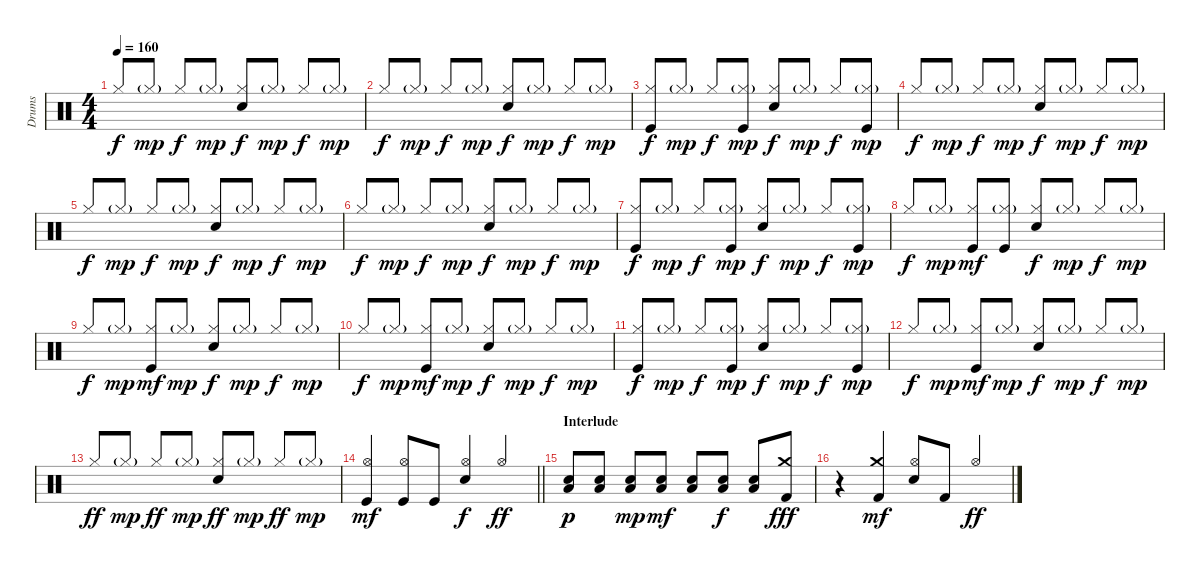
\track ("Drums" "Drums") {solo instrument percussion}
\staff {score}
\articulation defaults
\ts (4 4)
\tempo 160
\clef neutral
\ks c "Hi-Hat (closed)".8{dy f beam Up} "Hi-Hat (closed)"{g}.8{dy mp beam Up} "Hi-Hat (closed)".8{dy f beam Up} "Hi-Hat (closed)"{g}.8{dy mp beam Up}
("Hi-Hat (closed)" "Electric Snare (hit)").8{dy f beam Up} "Hi-Hat (closed)"{g}.8{dy mp beam Up} "Hi-Hat (closed)".8{dy f beam Up} "Hi-Hat (closed)"{g}.8{dy mp beam Up} |
"Hi-Hat (closed)".8{dy f beam Up} "Hi-Hat (closed)"{g}.8{dy mp beam Up} "Hi-Hat (closed)".8{dy f beam Up} "Hi-Hat (closed)"{g}.8{dy mp beam Up} ("Hi-Hat (closed)" "Electric Snare (hit)").8{dy f beam Up} "Hi-Hat (closed)"{g}.8{dy mp beam Up} "Hi-Hat (closed)".8{dy f beam Up} "Hi-Hat (closed)"{g}.8{dy mp beam Up} |
("Hi-Hat (closed)" "Kick (hit)").8{dy f beam Up} "Hi-Hat (closed)"{g}.8{dy mp beam Up} "Hi-Hat (closed)".8{dy f beam Up} ("Hi-Hat (closed)"{g} "Kick (hit)").8{dy mp beam Up} ("Hi-Hat (closed)" "Electric Snare (hit)").8{dy f beam Up} "Hi-Hat (closed)"{g}.8{dy mp beam Up} "Hi-Hat (closed)".8{dy f beam Up} ("Hi-Hat (closed)"{g} "Kick (hit)").8{dy mp beam Up} |
"Hi-Hat (closed)".8{dy f beam Up} "Hi-Hat (closed)"{g}.8{dy mp beam Up} "Hi-Hat (closed)".8{dy f beam Up} "Hi-Hat (closed)"{g}.8{dy mp beam Up} ("Hi-Hat (closed)" "Electric Snare (hit)").8{dy f beam Up} "Hi-Hat (closed)"{g}.8{dy mp beam Up} "Hi-Hat (closed)".8{dy f beam Up} "Hi-Hat (closed)"{g}.8{dy mp beam Up} |
"Hi-Hat (closed)".8{dy f beam Up} "Hi-Hat (closed)"{g}.8{dy mp beam Up} "Hi-Hat (closed)".8{dy f beam Up} "Hi-Hat (closed)"{g}.8{dy mp beam Up} ("Hi-Hat (closed)" "Electric Snare (hit)").8{dy f beam Up} "Hi-Hat (closed)"{g}.8{dy mp beam Up} "Hi-Hat (closed)".8{dy f beam Up} "Hi-Hat (closed)"{g}.8{dy mp beam Up} |
"Hi-Hat (closed)".8{dy f beam Up} "Hi-Hat (closed)"{g}.8{dy mp beam Up} "Hi-Hat (closed)".8{dy f beam Up} "Hi-Hat (closed)"{g}.8{dy mp beam Up} ("Hi-Hat (closed)" "Electric Snare (hit)").8{dy f beam Up} "Hi-Hat (closed)"{g}.8{dy mp beam Up} "Hi-Hat (closed)".8{dy f beam Up} "Hi-Hat (closed)"{g}.8{dy mp beam Up} |
("Hi-Hat (closed)" "Kick (hit)").8{dy f beam Up} "Hi-Hat (closed)"{g}.8{dy mp beam Up} "Hi-Hat (closed)".8{dy f beam Up} ("Hi-Hat (closed)"{g} "Kick (hit)").8{dy mp beam Up} ("Hi-Hat (closed)" "Electric Snare (hit)").8{dy f beam Up} "Hi-Hat (closed)"{g}.8{dy mp beam Up} "Hi-Hat (closed)".8{dy f beam Up} ("Hi-Hat (closed)"{g} "Kick (hit)").8{dy mp beam Up} |
"Hi-Hat (closed)".8{dy f beam Up} "Hi-Hat (closed)"{g}.8{dy mp beam Up} ("Hi-Hat (closed)" "Kick (hit)").8{dy mf beam Up} ("Hi-Hat (closed)"{g} "Kick (hit)").8{beam Up} ("Hi-Hat (closed)" "Electric Snare (hit)").8{dy f beam Up} "Hi-Hat (closed)"{g}.8{dy mp beam Up} "Hi-Hat (closed)".8{dy f beam Up} "Hi-Hat (closed)"{g}.8{dy mp beam Up} |
"Hi-Hat (closed)".8{dy f beam Up} "Hi-Hat (closed)"{g}.8{dy mp beam Up} ("Hi-Hat (closed)" "Kick (hit)").8{dy mf beam Up} "Hi-Hat (closed)"{g}.8{dy mp beam Up} ("Hi-Hat (closed)" "Electric Snare (hit)").8{dy f beam Up} "Hi-Hat (closed)"{g}.8{dy mp beam Up} "Hi-Hat (closed)".8{dy f beam Up} "Hi-Hat (closed)"{g}.8{dy mp beam Up} |
"Hi-Hat (closed)".8{dy f beam Up} "Hi-Hat (closed)"{g}.8{dy mp beam Up} ("Hi-Hat (closed)" "Kick (hit)").8{dy mf beam Up} "Hi-Hat (closed)"{g}.8{dy mp beam Up} ("Hi-Hat (closed)" "Electric Snare (hit)").8{dy f beam Up} "Hi-Hat (closed)"{g}.8{dy mp beam Up} "Hi-Hat (closed)".8{dy f beam Up} "Hi-Hat (closed)"{g}.8{dy mp beam Up} |
("Hi-Hat (closed)" "Kick (hit)").8{dy f beam Up} "Hi-Hat (closed)"{g}.8{dy mp beam Up} "Hi-Hat (closed)".8{dy f beam Up} ("Hi-Hat (closed)"{g} "Kick (hit)").8{dy mp beam Up} ("Hi-Hat (closed)" "Electric Snare (hit)").8{dy f beam Up} "Hi-Hat (closed)"{g}.8{dy mp beam Up} "Hi-Hat (closed)".8{dy f beam Up} ("Hi-Hat (closed)"{g} "Kick (hit)").8{dy mp beam Up} |
"Hi-Hat (closed)".8{dy f beam Up} "Hi-Hat (closed)"{g}.8{dy mp beam Up} ("Hi-Hat (closed)" "Kick (hit)").8{dy mf beam Up} "Hi-Hat (closed)"{g}.8{dy mp beam Up} ("Hi-Hat (closed)" "Electric Snare (hit)").8{dy f beam Up} "Hi-Hat (closed)"{g}.8{dy mp beam Up} "Hi-Hat (closed)".8{dy f beam Up} "Hi-Hat (closed)"{g}.8{dy mp beam Up} |
"Hi-Hat (closed)".8{dy ff beam Up} "Hi-Hat (closed)"{g}.8{dy mp beam Up} "Hi-Hat (closed)".8{dy ff beam Up} "Hi-Hat (closed)"{g}.8{dy mp beam Up} ("Hi-Hat (closed)" "Electric Snare (hit)").8{dy ff beam Up} "Hi-Hat (closed)"{g}.8{dy mp beam Up} "Hi-Hat (closed)".8{dy ff beam Up} "Hi-Hat (closed)"{g}.8{dy mp beam Up} |
\barLineRight lightlight
("Hi-Hat (open)" "Kick (hit)").4{dy mf beam Up} ("Hi-Hat (open)" "Kick (hit)").8{beam Up} "Kick (hit)".8{beam Up} ("Hi-Hat (open)" "Electric Snare (hit)").4{dy f beam Up} "Hi-Hat (open)".4{dy ff beam Up} |
\section ("" "Interlude")
("Snare (hit) 2" "Low Tom (hit)").8{dy p beam Up} ("Snare (hit) 2" "Low Tom (hit)").8{beam Up} ("Snare (hit) 2" "Low Tom (hit)").8{dy mp beam Up} ("Snare (hit) 2" "Low Tom (hit)").8{dy mf beam Up} ("Snare (hit) 2" "Low Tom (hit)").8{beam Up} ("Snare (hit) 2" "Low Tom (hit)").8{dy f beam Up} ("Snare (hit) 2" "Low Tom (hit)").8{beam Up} ("Crash medium (hit)" "Kick (hit) 2").8{dy fff beam Up} |
r.4 ("Crash medium (hit)" "Kick (hit) 2").4{dy mf beam Up} ("Hi-Hat (open)" "Snare (hit) 2").8{beam Up} "Kick (hit) 2".8{beam Up} "Hi-Hat (open)".4{dy ff beam Up}
